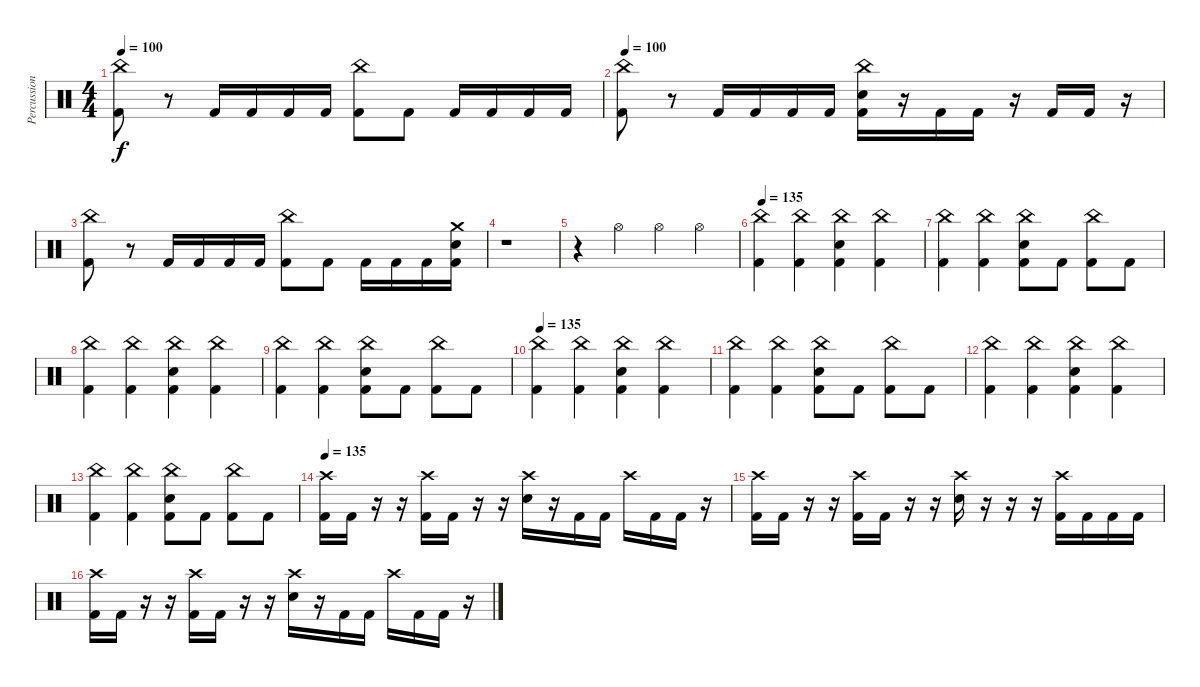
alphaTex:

\track ("Percussion" "Percussion") {instrument percussion}
\staff {score}
\articulation defaults
\ts (4 4)
\tempo 100
\clef neutral
\ks c
("China (hit)" "Kick (hit) 2").8{dy f} r.8 "Kick (hit) 2".16 "Kick (hit) 2".16 "Kick (hit) 2".16 "Kick (hit) 2".16 ("China (hit)" "Kick (hit) 2").8 "Kick (hit) 2".8 "Kick (hit) 2".16 "Kick (hit) 2".16 "Kick (hit) 2".16 "Kick (hit) 2".16 |
\tempo 100
("China (hit)" "Kick (hit) 2").8 r.8 "Kick (hit) 2".16 "Kick (hit) 2".16 "Kick (hit) 2".16 "Kick (hit) 2".16 ("China (hit)" "Electric Snare (hit)" "Kick (hit) 2").16 r.16 "Kick (hit) 2".16 "Kick (hit) 2".16 r.16 "Kick (hit) 2".16 "Kick (hit) 2".16 r.16 |
("China (hit)" "Kick (hit) 2").8 r.8 "Kick (hit) 2".16 "Kick (hit) 2".16 "Kick (hit) 2".16 "Kick (hit) 2".16 ("China (hit)" "Kick (hit) 2").8 "Kick (hit) 2".8 "Kick (hit) 2".16 "Kick (hit) 2".16 "Kick (hit) 2".16 ("Crash medium (hit)" "Electric Snare (hit)" "Kick (hit) 2").16 |
r.1 |
r.4 "Hi-Hat (open)".4 "Hi-Hat (open)".4 "Hi-Hat (open)".4 |
\tempo 135
("China (hit)" "Kick (hit) 2").4 ("China (hit)" "Kick (hit) 2").4 ("China (hit)" "Electric Snare (hit)" "Kick (hit) 2").4 ("China (hit)" "Kick (hit) 2").4 |
("China (hit)" "Kick (hit) 2").4 ("China (hit)" "Kick (hit) 2").4 ("China (hit)" "Electric Snare (hit)" "Kick (hit) 2").8 "Kick (hit) 2".8 ("China (hit)" "Kick (hit) 2").8 "Kick (hit) 2".8 |
("China (hit)" "Kick (hit) 2").4 ("China (hit)" "Kick (hit) 2").4 ("China (hit)" "Electric Snare (hit)" "Kick (hit) 2").4 ("China (hit)" "Kick (hit) 2").4 |
("China (hit)" "Kick (hit) 2").4 ("China (hit)" "Kick (hit) 2").4 ("China (hit)" "Electric Snare (hit)" "Kick (hit) 2").8 "Kick (hit) 2".8 ("China (hit)" "Kick (hit) 2").8 "Kick (hit) 2".8 |
\tempo 135
("China (hit)" "Kick (hit) 2").4 ("China (hit)" "Kick (hit) 2").4 ("China (hit)" "Electric Snare (hit)" "Kick (hit) 2").4 ("China (hit)" "Kick (hit) 2").4 |
("China (hit)" "Kick (hit) 2").4 ("China (hit)" "Kick (hit) 2").4 ("China (hit)" "Electric Snare (hit)" "Kick (hit) 2").8 "Kick (hit) 2".8 ("China (hit)" "Kick (hit) 2").8 "Kick (hit) 2".8 |
("China (hit)" "Kick (hit) 2").4 ("China (hit)" "Kick (hit) 2").4 ("China (hit)" "Electric Snare (hit)" "Kick (hit) 2").4 ("China (hit)" "Kick (hit) 2").4 |
("China (hit)" "Kick (hit) 2").4 ("China (hit)" "Kick (hit) 2").4 ("China (hit)" "Electric Snare (hit)" "Kick (hit) 2").8 "Kick (hit) 2".8 ("China (hit)" "Kick (hit) 2").8 "Kick (hit) 2".8 |
\tempo 135
("Crash high (hit)" "Kick (hit) 2").16 "Kick (hit) 2".16 r.16 r.16 ("Crash high (hit)" "Kick (hit) 2").16 "Kick (hit) 2".16 r.16 r.16 ("Crash high (hit)" "Electric Snare (hit)").16 r.16 "Kick (hit) 2".16 "Kick (hit) 2".16 "Crash high (hit)".16 "Kick (hit) 2".16 "Kick (hit) 2".16 r.16 |
("Crash high (hit)" "Kick (hit) 2").16 "Kick (hit) 2".16 r.16 r.16 ("Crash high (hit)" "Kick (hit) 2").16 "Kick (hit) 2".16 r.16 r.16 ("Crash high (hit)" "Electric Snare (hit)").16 r.16 r.16 r.16 ("Crash high (hit)" "Kick (hit) 2").16 "Kick (hit) 2".16 "Kick (hit) 2".16 "Kick (hit) 2".16 |
("Crash high (hit)" "Kick (hit) 2").16 "Kick (hit) 2".16 r.16 r.16 ("Crash high (hit)" "Kick (hit) 2").16 "Kick (hit) 2".16 r.16 r.16 ("Crash high (hit)" "Electric Snare (hit)").16 r.16 "Kick (hit) 2".16 "Kick (hit) 2".16 "Crash high (hit)".16 "Kick (hit) 2".16 "Kick (hit) 2".16 r.16
